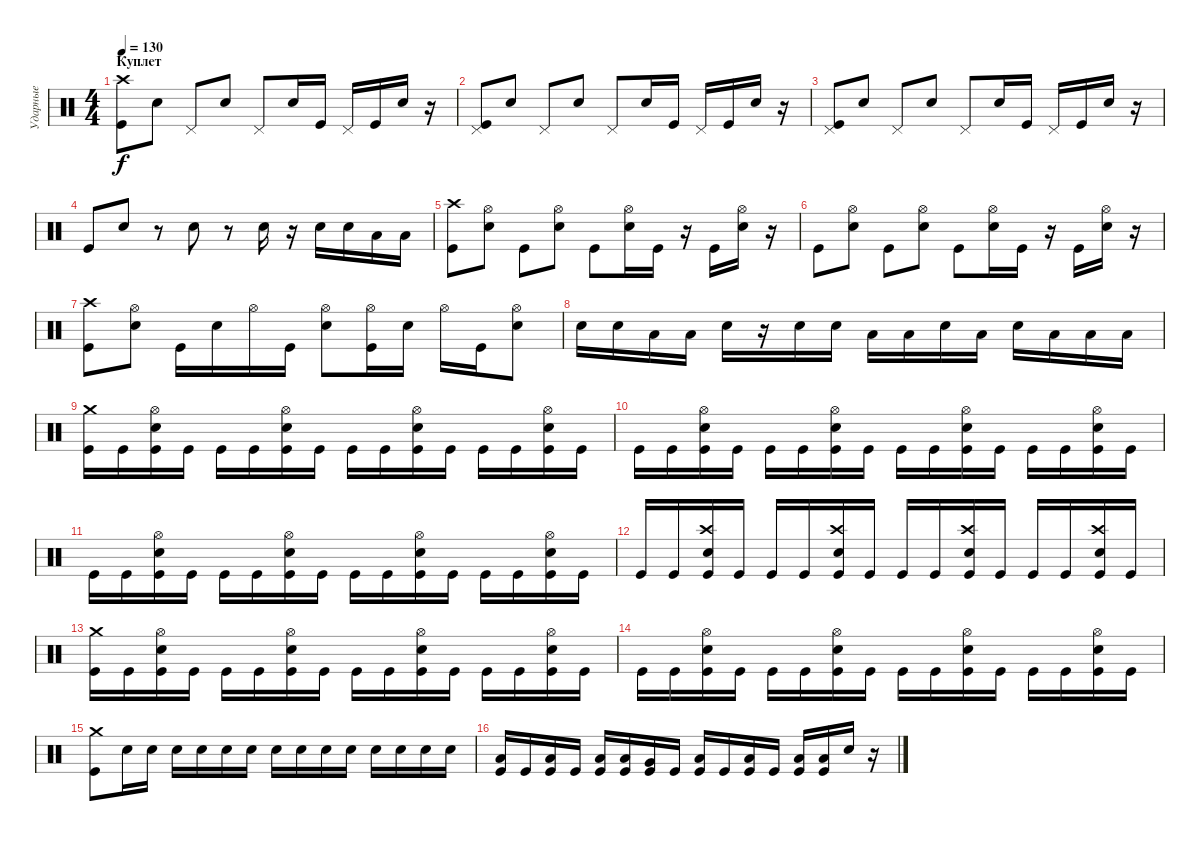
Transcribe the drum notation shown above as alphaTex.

\track ("Ударные" "Ударные") {instrument percussion}
\staff {score}
\articulation defaults
\ts (4 4)
\section ("" "Куплет")
\tempo 130
\clef neutral
\ks c
("Kick (hit)" "Crash high (hit)").8{dy f} "Snare (hit) 2".8 "Pedal Hi-Hat (hit)".8 "Snare (hit) 2".8 "Pedal Hi-Hat (hit)".8 "Snare (hit) 2".16 "Kick (hit)".16 "Pedal Hi-Hat (hit)".16 "Kick (hit)".16 "Snare (hit) 2".16 r.16 |
("Kick (hit)" "Pedal Hi-Hat (hit)").8 "Snare (hit) 2".8 "Pedal Hi-Hat (hit)".8 "Snare (hit) 2".8 "Pedal Hi-Hat (hit)".8 "Snare (hit) 2".16 "Kick (hit)".16 "Pedal Hi-Hat (hit)".16 "Kick (hit)".16 "Snare (hit) 2".16 r.16 |
("Kick (hit)" "Pedal Hi-Hat (hit)").8 "Snare (hit) 2".8 "Pedal Hi-Hat (hit)".8 "Snare (hit) 2".8 "Pedal Hi-Hat (hit)".8 "Snare (hit) 2".16 "Kick (hit)".16 "Pedal Hi-Hat (hit)".16 "Kick (hit)".16 "Snare (hit) 2".16 r.16 |
"Kick (hit)".8 "Snare (hit) 2".8 r.8 "Snare (hit) 2".8 r.8 "Snare (hit) 2".16 r.16 "Snare (hit) 2".16 "Snare (hit) 2".16 "Low Tom (hit)".16 "Low Tom (hit)".16 |
("Kick (hit)" "Crash high (hit)").8 ("Snare (hit) 2" "Hi-Hat (open)").8 "Kick (hit)".8 ("Snare (hit) 2" "Hi-Hat (open)").8 "Kick (hit)".8 ("Snare (hit) 2" "Hi-Hat (open)").16 "Kick (hit)".16 r.16 "Kick (hit)".16 ("Snare (hit) 2" "Hi-Hat (open)").16 r.16 |
"Kick (hit)".8 ("Snare (hit) 2" "Hi-Hat (open)").8 "Kick (hit)".8 ("Snare (hit) 2" "Hi-Hat (open)").8 "Kick (hit)".8 ("Snare (hit) 2" "Hi-Hat (open)").16 "Kick (hit)".16 r.16 "Kick (hit)".16 ("Snare (hit) 2" "Hi-Hat (open)").16 r.16 |
("Kick (hit)" "Crash high (hit)").8 ("Snare (hit) 2" "Hi-Hat (open)").8 "Kick (hit)".16 "Snare (hit) 2".16 "Hi-Hat (open)".16 "Kick (hit)".16 ("Snare (hit) 2" "Hi-Hat (open)").8 ("Kick (hit)" "Hi-Hat (open)").16 "Snare (hit) 2".16 "Hi-Hat (open)".16 "Kick (hit)".16 ("Snare (hit) 2" "Hi-Hat (open)").8 |
"Snare (hit) 2".16 "Snare (hit) 2".16 "Low Tom (hit)".16 "Low Tom (hit)".16 "Snare (hit) 2".16 r.16 "Snare (hit) 2".16 "Snare (hit) 2".16 "Low Tom (hit)".16 "Low Tom (hit)".16 "Snare (hit) 2".16 "Low Tom (hit)".16 "Snare (hit) 2".16 "Low Tom (hit)".16 "Low Tom (hit)".16 "Low Tom (hit)".16 |
("Kick (hit)" "Crash medium (hit)").16 "Kick (hit)".16 ("Kick (hit)" "Snare (hit) 2" "Hi-Hat (open)").16 "Kick (hit)".16 "Kick (hit)".16 "Kick (hit)".16 ("Kick (hit)" "Snare (hit) 2" "Hi-Hat (open)").16 "Kick (hit)".16 "Kick (hit)".16 "Kick (hit)".16 ("Kick (hit)" "Snare (hit) 2" "Hi-Hat (open)").16 "Kick (hit)".16 "Kick (hit)".16 "Kick (hit)".16 ("Kick (hit)" "Snare (hit) 2" "Hi-Hat (open)").16 "Kick (hit)".16 |
"Kick (hit)".16 "Kick (hit)".16 ("Kick (hit)" "Snare (hit) 2" "Hi-Hat (open)").16 "Kick (hit)".16 "Kick (hit)".16 "Kick (hit)".16 ("Kick (hit)" "Snare (hit) 2" "Hi-Hat (open)").16 "Kick (hit)".16 "Kick (hit)".16 "Kick (hit)".16 ("Kick (hit)" "Snare (hit) 2" "Hi-Hat (open)").16 "Kick (hit)".16 "Kick (hit)".16 "Kick (hit)".16 ("Kick (hit)" "Snare (hit) 2" "Hi-Hat (open)").16 "Kick (hit)".16 |
"Kick (hit)".16 "Kick (hit)".16 ("Kick (hit)" "Snare (hit) 2" "Hi-Hat (open)").16 "Kick (hit)".16 "Kick (hit)".16 "Kick (hit)".16 ("Kick (hit)" "Snare (hit) 2" "Hi-Hat (open)").16 "Kick (hit)".16 "Kick (hit)".16 "Kick (hit)".16 ("Kick (hit)" "Snare (hit) 2" "Hi-Hat (open)").16 "Kick (hit)".16 "Kick (hit)".16 "Kick (hit)".16 ("Kick (hit)" "Snare (hit) 2" "Hi-Hat (open)").16 "Kick (hit)".16 |
"Kick (hit)".16 "Kick (hit)".16 ("Kick (hit)" "Snare (hit) 2" "Crash high (hit)").16 "Kick (hit)".16 "Kick (hit)".16 "Kick (hit)".16 ("Kick (hit)" "Snare (hit) 2" "Crash high (hit)").16 "Kick (hit)".16 "Kick (hit)".16 "Kick (hit)".16 ("Kick (hit)" "Snare (hit) 2" "Crash high (hit)").16 "Kick (hit)".16 "Kick (hit)".16 "Kick (hit)".16 ("Kick (hit)" "Snare (hit) 2" "Crash high (hit)").16 "Kick (hit)".16 |
("Kick (hit)" "Crash medium (hit)").16 "Kick (hit)".16 ("Kick (hit)" "Snare (hit) 2" "Hi-Hat (open)").16 "Kick (hit)".16 "Kick (hit)".16 "Kick (hit)".16 ("Kick (hit)" "Snare (hit) 2" "Hi-Hat (open)").16 "Kick (hit)".16 "Kick (hit)".16 "Kick (hit)".16 ("Kick (hit)" "Snare (hit) 2" "Hi-Hat (open)").16 "Kick (hit)".16 "Kick (hit)".16 "Kick (hit)".16 ("Kick (hit)" "Snare (hit) 2" "Hi-Hat (open)").16 "Kick (hit)".16 |
"Kick (hit)".16 "Kick (hit)".16 ("Kick (hit)" "Snare (hit) 2" "Hi-Hat (open)").16 "Kick (hit)".16 "Kick (hit)".16 "Kick (hit)".16 ("Kick (hit)" "Snare (hit) 2" "Hi-Hat (open)").16 "Kick (hit)".16 "Kick (hit)".16 "Kick (hit)".16 ("Kick (hit)" "Snare (hit) 2" "Hi-Hat (open)").16 "Kick (hit)".16 "Kick (hit)".16 "Kick (hit)".16 ("Kick (hit)" "Snare (hit) 2" "Hi-Hat (open)").16 "Kick (hit)".16 |
("Kick (hit)" "Crash medium (hit)").8 "Snare (hit) 2".16 "Snare (hit) 2".16 "Snare (hit) 2".16 "Snare (hit) 2".16 "Snare (hit) 2".16 "Snare (hit) 2".16 "Snare (hit) 2".16 "Snare (hit) 2".16 "Snare (hit) 2".16 "Snare (hit) 2".16 "Snare (hit) 2".16 "Snare (hit) 2".16 "Snare (hit) 2".16 "Snare (hit) 2".16 |
("Kick (hit)" "Low Tom (hit)").16 "Kick (hit)".16 ("Kick (hit)" "Low Tom (hit)").16 "Kick (hit)".16 ("Kick (hit)" "Low Tom (hit)").16 ("Kick (hit)" "Low Tom (hit)").16 ("Kick (hit)" "Very Low Tom (hit)").16 "Kick (hit)".16 ("Kick (hit)" "Low Tom (hit)").16 "Kick (hit)".16 ("Kick (hit)" "Low Tom (hit)").16 "Kick (hit)".16 ("Kick (hit)" "Low Tom (hit)").16 ("Kick (hit)" "Low Tom (hit)").16 "Snare (hit) 2".16 r.16
